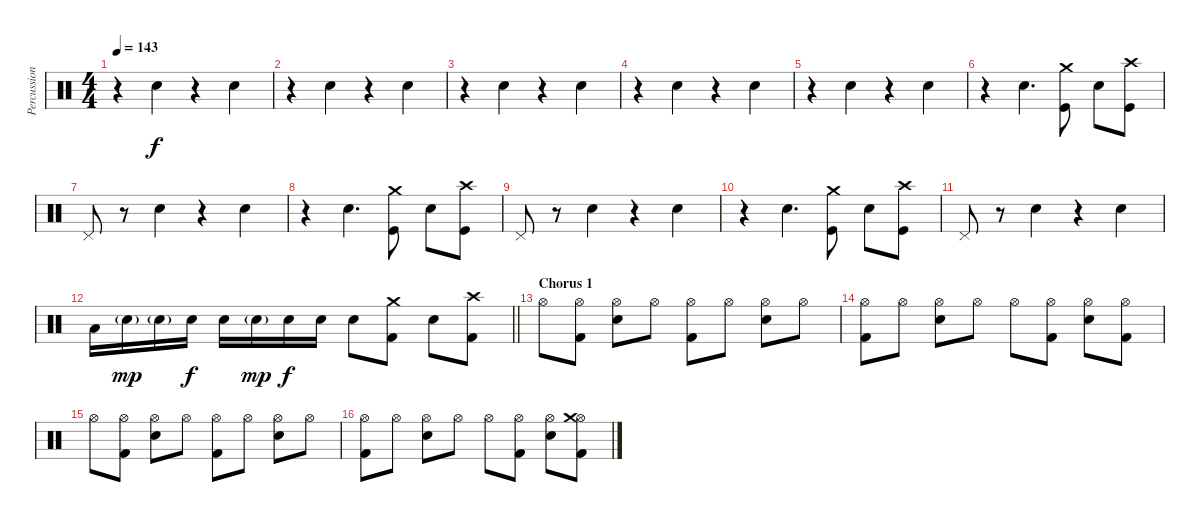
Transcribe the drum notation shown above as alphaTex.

\track ("Percussion" "Percussion") {instrument percussion}
\staff {score}
\articulation defaults
\ts (4 4)
\tempo 143
\clef neutral
\ks c
r.4{dy f} "Snare (hit) 2".4 r.4 "Snare (hit) 2".4 |
r.4 "Snare (hit) 2".4 r.4 "Snare (hit) 2".4 |
r.4 "Snare (hit) 2".4 r.4 "Snare (hit) 2".4 |
r.4 "Snare (hit) 2".4 r.4 "Snare (hit) 2".4 |
r.4 "Snare (hit) 2".4 r.4 "Snare (hit) 2".4 |
r.4 "Snare (hit) 2".4{d} ("Crash medium (hit)" "Kick (hit)").8 "Snare (hit) 2".8 ("Crash high (hit)" "Kick (hit)").8 |
"Pedal Hi-Hat (hit)".8 r.8 "Snare (hit) 2".4 r.4 "Snare (hit) 2".4 |
r.4 "Snare (hit) 2".4{d} ("Crash medium (hit)" "Kick (hit)").8 "Snare (hit) 2".8 ("Crash high (hit)" "Kick (hit)").8 |
"Pedal Hi-Hat (hit)".8 r.8 "Snare (hit) 2".4 r.4 "Snare (hit) 2".4 |
r.4 "Snare (hit) 2".4{d} ("Crash medium (hit)" "Kick (hit)").8 "Snare (hit) 2".8 ("Crash high (hit)" "Kick (hit)").8 |
"Pedal Hi-Hat (hit)".8 r.8 "Snare (hit) 2".4 r.4 "Snare (hit) 2".4 |
\barLineRight lightlight "Low Tom (hit)".16 "Snare (hit) 2"{g}.16{dy mp} "Snare (hit) 2"{g}.16 "Snare (hit) 2".16{dy f} "Snare (hit) 2".16 "Snare (hit) 2"{g}.16{dy mp} "Snare (hit) 2".16{dy f} "Snare (hit) 2".16 "Snare (hit) 2".8
("Crash medium (hit)" "Kick (hit) 2").8 "Snare (hit) 2".8 ("Crash high (hit)" "Kick (hit) 2").8 |
\section ("" "Chorus 1")
"Hi-Hat (open)".8 ("Hi-Hat (open)" "Kick (hit) 2").8 ("Hi-Hat (open)" "Snare (hit) 2").8 "Hi-Hat (open)".8 ("Hi-Hat (open)" "Kick (hit) 2").8 "Hi-Hat (open)".8 ("Hi-Hat (open)" "Snare (hit) 2").8 "Hi-Hat (open)".8 |
("Hi-Hat (open)" "Kick (hit) 2").8 "Hi-Hat (open)".8 ("Hi-Hat (open)" "Snare (hit) 2").8 "Hi-Hat (open)".8 "Hi-Hat (open)".8 ("Hi-Hat (open)" "Kick (hit) 2").8 ("Hi-Hat (open)" "Snare (hit) 2").8 ("Hi-Hat (open)" "Kick (hit) 2").8 |
"Hi-Hat (open)".8 ("Hi-Hat (open)" "Kick (hit) 2").8 ("Hi-Hat (open)" "Snare (hit) 2").8 "Hi-Hat (open)".8 ("Hi-Hat (open)" "Kick (hit) 2").8 "Hi-Hat (open)".8 ("Hi-Hat (open)" "Snare (hit) 2").8 "Hi-Hat (open)".8 |
("Hi-Hat (open)" "Kick (hit) 2").8 "Hi-Hat (open)".8 ("Hi-Hat (open)" "Snare (hit) 2").8 "Hi-Hat (open)".8 "Hi-Hat (open)".8 ("Hi-Hat (open)" "Kick (hit) 2").8 ("Hi-Hat (open)" "Snare (hit) 2").8 ("Hi-Hat (open)" "Crash medium (hit)" "Kick (hit) 2").8
